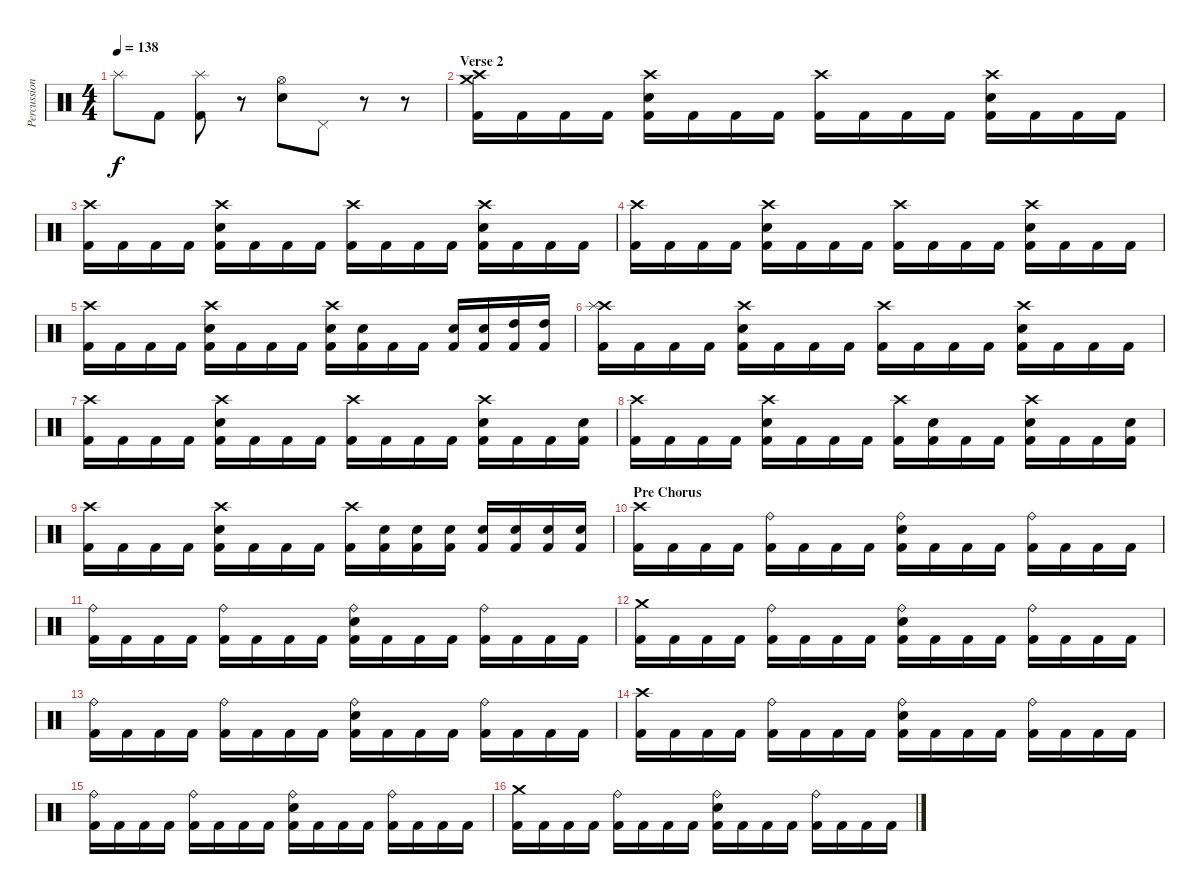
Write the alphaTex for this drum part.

\track ("Percussion" "Percussion") {instrument percussion}
\staff {score}
\articulation defaults
\ts (4 4)
\tempo 138
\clef neutral
\ks c "Splash (hit)".8{dy f} "Kick (hit) 2".8
("Splash (hit)" "Kick (hit) 2").8 r.8 ("Hi-Hat (open)" "Electric Snare (hit)").8 "Pedal Hi-Hat (hit)".8 r.8 r.8 |
\section ("" "Verse 2")
("Crash high (hit)" "Crash medium (hit)" "Kick (hit) 2").16 "Kick (hit) 2".16 "Kick (hit) 2".16 "Kick (hit) 2".16 ("Crash high (hit)" "Electric Snare (hit)" "Kick (hit) 2").16 "Kick (hit) 2".16 "Kick (hit) 2".16 "Kick (hit) 2".16 ("Crash high (hit)" "Kick (hit) 2").16 "Kick (hit) 2".16 "Kick (hit) 2".16 "Kick (hit) 2".16 ("Crash high (hit)" "Electric Snare (hit)" "Kick (hit) 2").16 "Kick (hit) 2".16 "Kick (hit) 2".16 "Kick (hit) 2".16 |
("Crash high (hit)" "Kick (hit) 2").16 "Kick (hit) 2".16 "Kick (hit) 2".16 "Kick (hit) 2".16 ("Crash high (hit)" "Electric Snare (hit)" "Kick (hit) 2").16 "Kick (hit) 2".16 "Kick (hit) 2".16 "Kick (hit) 2".16 ("Crash high (hit)" "Kick (hit) 2").16 "Kick (hit) 2".16 "Kick (hit) 2".16 "Kick (hit) 2".16 ("Crash high (hit)" "Electric Snare (hit)" "Kick (hit) 2").16 "Kick (hit) 2".16 "Kick (hit) 2".16 "Kick (hit) 2".16 |
("Crash high (hit)" "Kick (hit) 2").16 "Kick (hit) 2".16 "Kick (hit) 2".16 "Kick (hit) 2".16 ("Crash high (hit)" "Electric Snare (hit)" "Kick (hit) 2").16 "Kick (hit) 2".16 "Kick (hit) 2".16 "Kick (hit) 2".16 ("Crash high (hit)" "Kick (hit) 2").16 "Kick (hit) 2".16 "Kick (hit) 2".16 "Kick (hit) 2".16 ("Crash high (hit)" "Electric Snare (hit)" "Kick (hit) 2").16 "Kick (hit) 2".16 "Kick (hit) 2".16 "Kick (hit) 2".16 |
("Crash high (hit)" "Kick (hit) 2").16 "Kick (hit) 2".16 "Kick (hit) 2".16 "Kick (hit) 2".16 ("Crash high (hit)" "Electric Snare (hit)" "Kick (hit) 2").16 "Kick (hit) 2".16 "Kick (hit) 2".16 "Kick (hit) 2".16 ("Crash high (hit)" "Electric Snare (hit)" "Kick (hit) 2").16 ("Electric Snare (hit)" "Kick (hit) 2").16 "Kick (hit) 2".16 "Kick (hit) 2".16 ("Electric Snare (hit)" "Kick (hit) 2").16 ("Electric Snare (hit)" "Kick (hit) 2").16 ("High Tom (hit)" "Kick (hit) 2").16 ("High Tom (hit)" "Kick (hit) 2").16 |
("Crash high (hit)" "Splash (hit)" "Kick (hit) 2").16 "Kick (hit) 2".16 "Kick (hit) 2".16 "Kick (hit) 2".16 ("Crash high (hit)" "Electric Snare (hit)" "Kick (hit) 2").16 "Kick (hit) 2".16 "Kick (hit) 2".16 "Kick (hit) 2".16 ("Crash high (hit)" "Kick (hit) 2").16 "Kick (hit) 2".16 "Kick (hit) 2".16 "Kick (hit) 2".16 ("Crash high (hit)" "Electric Snare (hit)" "Kick (hit) 2").16 "Kick (hit) 2".16 "Kick (hit) 2".16 "Kick (hit) 2".16 |
("Crash high (hit)" "Kick (hit) 2").16 "Kick (hit) 2".16 "Kick (hit) 2".16 "Kick (hit) 2".16 ("Crash high (hit)" "Electric Snare (hit)" "Kick (hit) 2").16 "Kick (hit) 2".16 "Kick (hit) 2".16 "Kick (hit) 2".16 ("Crash high (hit)" "Kick (hit) 2").16 "Kick (hit) 2".16 "Kick (hit) 2".16 "Kick (hit) 2".16 ("Crash high (hit)" "Electric Snare (hit)" "Kick (hit) 2").16 "Kick (hit) 2".16 "Kick (hit) 2".16 ("Electric Snare (hit)" "Kick (hit) 2").16 |
("Crash high (hit)" "Kick (hit) 2").16 "Kick (hit) 2".16 "Kick (hit) 2".16 "Kick (hit) 2".16 ("Crash high (hit)" "Electric Snare (hit)" "Kick (hit) 2").16 "Kick (hit) 2".16 "Kick (hit) 2".16 "Kick (hit) 2".16 ("Crash high (hit)" "Kick (hit) 2").16 ("Electric Snare (hit)" "Kick (hit) 2").16 "Kick (hit) 2".16 "Kick (hit) 2".16 ("Crash high (hit)" "Electric Snare (hit)" "Kick (hit) 2").16 "Kick (hit) 2".16 "Kick (hit) 2".16 ("Electric Snare (hit)" "Kick (hit) 2").16 |
("Crash high (hit)" "Kick (hit) 2").16 "Kick (hit) 2".16 "Kick (hit) 2".16 "Kick (hit) 2".16 ("Crash high (hit)" "Electric Snare (hit)" "Kick (hit) 2").16 "Kick (hit) 2".16 "Kick (hit) 2".16 "Kick (hit) 2".16 ("Crash high (hit)" "Kick (hit) 2").16 ("Electric Snare (hit)" "Kick (hit) 2").16 ("Electric Snare (hit)" "Kick (hit) 2").16 ("Electric Snare (hit)" "Kick (hit) 2").16 ("Electric Snare (hit)" "Kick (hit) 2").16 ("Electric Snare (hit)" "Kick (hit) 2").16 ("Electric Snare (hit)" "Kick (hit) 2").16 ("Electric Snare (hit)" "Kick (hit) 2").16 |
\section ("" "Pre Chorus")
("Crash high (hit)" "Kick (hit) 2").16 "Kick (hit) 2".16 "Kick (hit) 2".16 "Kick (hit) 2".16 ("Ride (bell)" "Kick (hit) 2").16 "Kick (hit) 2".16 "Kick (hit) 2".16 "Kick (hit) 2".16 ("Ride (bell)" "Electric Snare (hit)" "Kick (hit) 2").16 "Kick (hit) 2".16 "Kick (hit) 2".16 "Kick (hit) 2".16 ("Ride (bell)" "Kick (hit) 2").16 "Kick (hit) 2".16 "Kick (hit) 2".16 "Kick (hit) 2".16 |
("Ride (bell)" "Kick (hit) 2").16 "Kick (hit) 2".16 "Kick (hit) 2".16 "Kick (hit) 2".16 ("Ride (bell)" "Kick (hit) 2").16 "Kick (hit) 2".16 "Kick (hit) 2".16 "Kick (hit) 2".16 ("Ride (bell)" "Electric Snare (hit)" "Kick (hit) 2").16 "Kick (hit) 2".16 "Kick (hit) 2".16 "Kick (hit) 2".16 ("Ride (bell)" "Kick (hit) 2").16 "Kick (hit) 2".16 "Kick (hit) 2".16 "Kick (hit) 2".16 |
("Crash medium (hit)" "Kick (hit) 2").16 "Kick (hit) 2".16 "Kick (hit) 2".16 "Kick (hit) 2".16 ("Ride (bell)" "Kick (hit) 2").16 "Kick (hit) 2".16 "Kick (hit) 2".16 "Kick (hit) 2".16 ("Ride (bell)" "Electric Snare (hit)" "Kick (hit) 2").16 "Kick (hit) 2".16 "Kick (hit) 2".16 "Kick (hit) 2".16 ("Ride (bell)" "Kick (hit) 2").16 "Kick (hit) 2".16 "Kick (hit) 2".16 "Kick (hit) 2".16 |
("Ride (bell)" "Kick (hit) 2").16 "Kick (hit) 2".16 "Kick (hit) 2".16 "Kick (hit) 2".16 ("Ride (bell)" "Kick (hit) 2").16 "Kick (hit) 2".16 "Kick (hit) 2".16 "Kick (hit) 2".16 ("Ride (bell)" "Electric Snare (hit)" "Kick (hit) 2").16 "Kick (hit) 2".16 "Kick (hit) 2".16 "Kick (hit) 2".16 ("Ride (bell)" "Kick (hit) 2").16 "Kick (hit) 2".16 "Kick (hit) 2".16 "Kick (hit) 2".16 |
("Crash high (hit)" "Kick (hit) 2").16 "Kick (hit) 2".16 "Kick (hit) 2".16 "Kick (hit) 2".16 ("Ride (bell)" "Kick (hit) 2").16 "Kick (hit) 2".16 "Kick (hit) 2".16 "Kick (hit) 2".16 ("Ride (bell)" "Electric Snare (hit)" "Kick (hit) 2").16 "Kick (hit) 2".16 "Kick (hit) 2".16 "Kick (hit) 2".16 ("Ride (bell)" "Kick (hit) 2").16 "Kick (hit) 2".16 "Kick (hit) 2".16 "Kick (hit) 2".16 |
("Ride (bell)" "Kick (hit) 2").16 "Kick (hit) 2".16 "Kick (hit) 2".16 "Kick (hit) 2".16 ("Ride (bell)" "Kick (hit) 2").16 "Kick (hit) 2".16 "Kick (hit) 2".16 "Kick (hit) 2".16 ("Ride (bell)" "Electric Snare (hit)" "Kick (hit) 2").16 "Kick (hit) 2".16 "Kick (hit) 2".16 "Kick (hit) 2".16 ("Ride (bell)" "Kick (hit) 2").16 "Kick (hit) 2".16 "Kick (hit) 2".16 "Kick (hit) 2".16 |
("Crash medium (hit)" "Kick (hit) 2").16 "Kick (hit) 2".16 "Kick (hit) 2".16 "Kick (hit) 2".16 ("Ride (bell)" "Kick (hit) 2").16 "Kick (hit) 2".16 "Kick (hit) 2".16 "Kick (hit) 2".16 ("Ride (bell)" "Electric Snare (hit)" "Kick (hit) 2").16 "Kick (hit) 2".16 "Kick (hit) 2".16 "Kick (hit) 2".16 ("Ride (bell)" "Kick (hit) 2").16 "Kick (hit) 2".16 "Kick (hit) 2".16 "Kick (hit) 2".16
